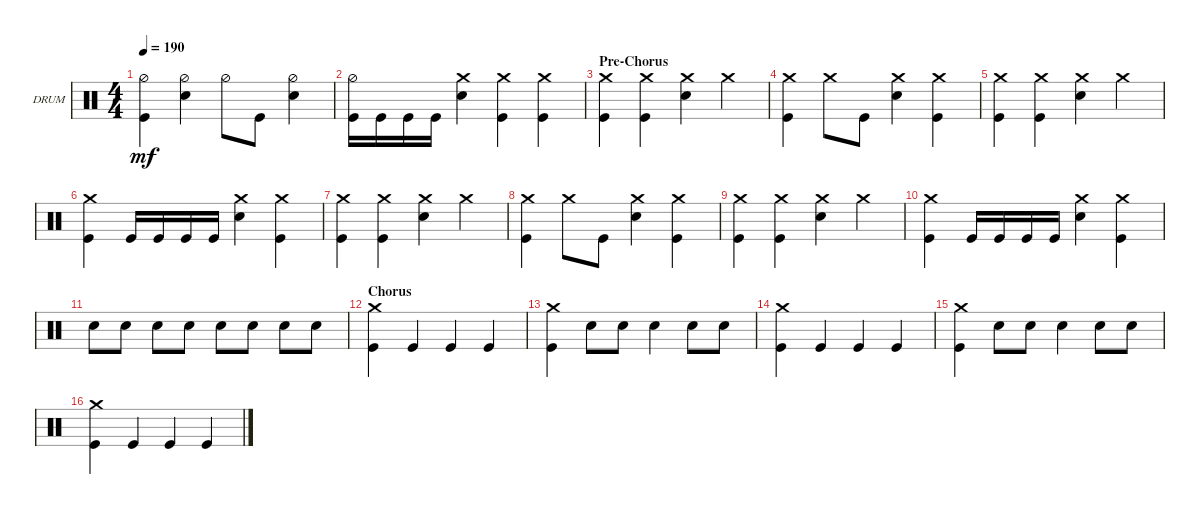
\defaultSystemsLayout 4
\bracketExtendMode groupsimilarinstruments
\firstSystemTrackNameOrientation horizontal
\otherSystemsTrackNameOrientation horizontal
\track ("Drums" "DRUM") {instrument percussion}
\staff {score}
\articulation defaults
\ts (4 4)
\tempo 190
\clef neutral
\ks c
("Kick (hit)" "Hi-Hat (half)").4{dy mf} ("Snare (hit) 2" "Hi-Hat (half)").4 "Hi-Hat (half)".8 "Kick (hit)".8 ("Snare (hit) 2" "Hi-Hat (half)").4 |
("Hi-Hat (half)" "Kick (hit)").16 "Kick (hit)".16 "Kick (hit)".16 "Kick (hit)".16 ("Snare (hit) 2" "Crash medium (hit)").4 ("Kick (hit)" "Crash medium (hit)").4 ("Crash medium (hit)" "Kick (hit)").4 |
\section ("" "Pre-Chorus")
("Crash medium (hit)" "Kick (hit)").4 ("Kick (hit)" "Crash medium (hit)").4 ("Snare (hit) 2" "Crash medium (hit)").4 "Crash medium (hit)".4 |
("Kick (hit)" "Crash medium (hit)").4 "Crash medium (hit)".8 "Kick (hit)".8 ("Snare (hit) 2" "Crash medium (hit)").4 ("Crash medium (hit)" "Kick (hit)").4 |
("Crash medium (hit)" "Kick (hit)").4 ("Kick (hit)" "Crash medium (hit)").4 ("Snare (hit) 2" "Crash medium (hit)").4 "Crash medium (hit)".4 |
("Crash medium (hit)" "Kick (hit)").4 "Kick (hit)".16 "Kick (hit)".16 "Kick (hit)".16 "Kick (hit)".16 ("Crash medium (hit)" "Snare (hit) 2").4 ("Kick (hit)" "Crash medium (hit)").4 |
("Kick (hit)" "Crash medium (hit)").4 ("Kick (hit)" "Crash medium (hit)").4 ("Snare (hit) 2" "Crash medium (hit)").4 "Crash medium (hit)".4 |
("Kick (hit)" "Crash medium (hit)").4 "Crash medium (hit)".8 "Kick (hit)".8 ("Snare (hit) 2" "Crash medium (hit)").4 ("Kick (hit)" "Crash medium (hit)").4 |
("Crash medium (hit)" "Kick (hit)").4 ("Kick (hit)" "Crash medium (hit)").4 ("Snare (hit) 2" "Crash medium (hit)").4 "Crash medium (hit)".4 |
("Crash medium (hit)" "Kick (hit)").4 "Kick (hit)".16 "Kick (hit)".16 "Kick (hit)".16 "Kick (hit)".16 ("Crash medium (hit)" "Snare (hit) 2").4 ("Kick (hit)" "Crash medium (hit)").4 |
"Snare (hit) 2".8 "Snare (hit) 2".8 "Snare (hit) 2".8 "Snare (hit) 2".8 "Snare (hit) 2".8 "Snare (hit) 2".8 "Snare (hit) 2".8 "Snare (hit) 2".8 |
\section ("" "Chorus")
("Kick (hit)" "Crash medium (hit)").4 "Kick (hit)".4 "Kick (hit)".4 "Kick (hit)".4 |
("Crash medium (hit)" "Kick (hit)").4 "Snare (hit) 2".8 "Snare (hit) 2".8 "Snare (hit) 2".4 "Snare (hit) 2".8 "Snare (hit) 2".8 |
("Kick (hit)" "Crash medium (hit)").4 "Kick (hit)".4 "Kick (hit)".4 "Kick (hit)".4 |
("Crash medium (hit)" "Kick (hit)").4 "Snare (hit) 2".8 "Snare (hit) 2".8 "Snare (hit) 2".4 "Snare (hit) 2".8 "Snare (hit) 2".8 |
("Kick (hit)" "Crash medium (hit)").4 "Kick (hit)".4 "Kick (hit)".4 "Kick (hit)".4
